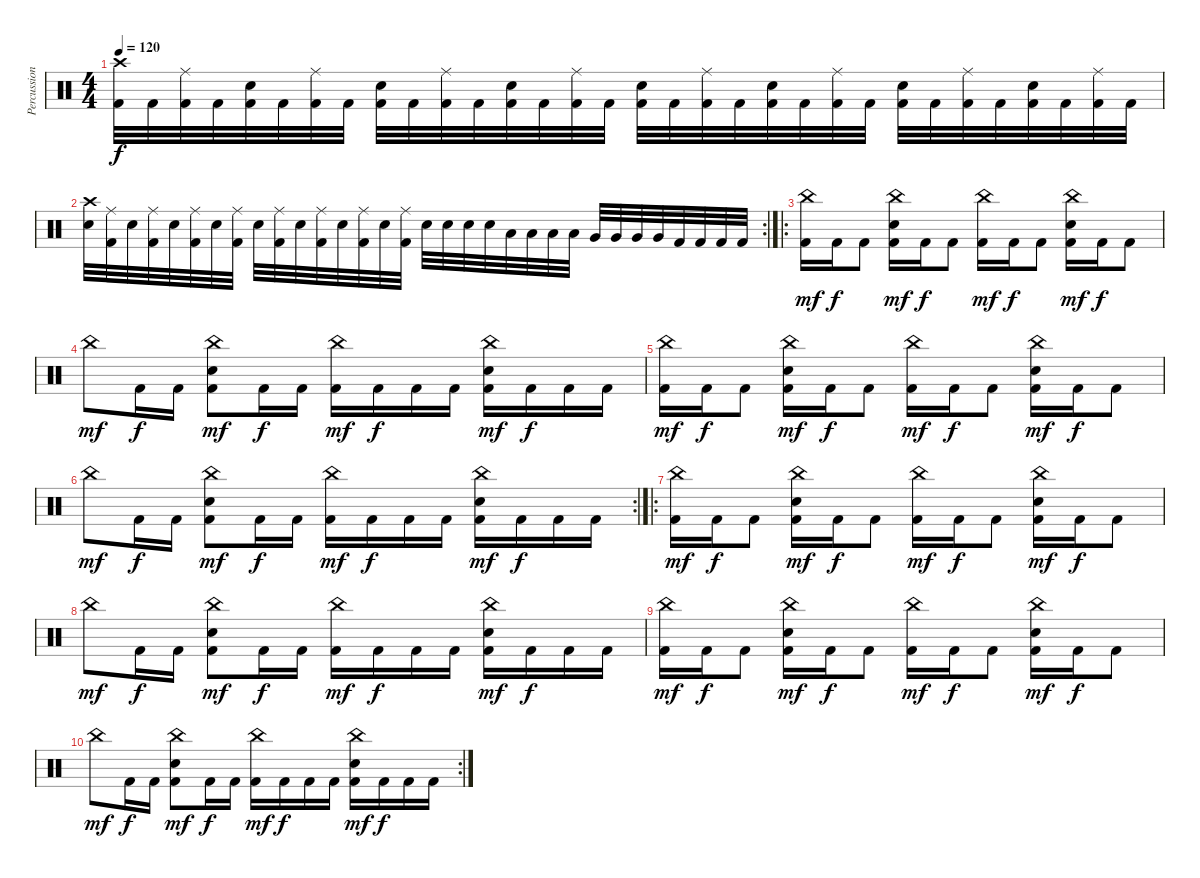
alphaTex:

\track ("Percussion" "Percussion") {instrument percussion}
\staff {score}
\articulation defaults
\ts (4 4)
\tempo 120
\clef neutral
\ks c
("Crash high (hit)" "Kick (hit) 2").32{dy f} "Kick (hit) 2".32 ("Ride (middle)" "Kick (hit) 2").32 "Kick (hit) 2".32 ("Electric Snare (hit)" "Kick (hit) 2").32 "Kick (hit) 2".32 ("Ride (middle)" "Kick (hit) 2").32 "Kick (hit) 2".32 ("Electric Snare (hit)" "Kick (hit) 2").32 "Kick (hit) 2".32 ("Ride (middle)" "Kick (hit) 2").32 "Kick (hit) 2".32 ("Electric Snare (hit)" "Kick (hit) 2").32 "Kick (hit) 2".32 ("Ride (middle)" "Kick (hit) 2").32 "Kick (hit) 2".32 ("Electric Snare (hit)" "Kick (hit) 2").32 "Kick (hit) 2".32 ("Ride (middle)" "Kick (hit) 2").32 "Kick (hit) 2".32 ("Electric Snare (hit)" "Kick (hit) 2").32 "Kick (hit) 2".32 ("Ride (middle)" "Kick (hit) 2").32 "Kick (hit) 2".32 ("Electric Snare (hit)" "Kick (hit) 2").32 "Kick (hit) 2".32 ("Ride (middle)" "Kick (hit) 2").32 "Kick (hit) 2".32 ("Electric Snare (hit)" "Kick (hit) 2").32 "Kick (hit) 2".32 ("Ride (middle)" "Kick (hit) 2").32 "Kick (hit) 2".32 |
\rc 2
("Crash high (hit)" "Electric Snare (hit)").32 ("Ride (middle)" "Kick (hit) 2").32 "Electric Snare (hit)".32 ("Ride (middle)" "Kick (hit) 2").32 "Electric Snare (hit)".32 ("Ride (middle)" "Kick (hit) 2").32 "Electric Snare (hit)".32 ("Ride (middle)" "Kick (hit) 2").32 "Electric Snare (hit)".32 ("Ride (middle)" "Kick (hit) 2").32 "Electric Snare (hit)".32 ("Ride (middle)" "Kick (hit) 2").32 "Electric Snare (hit)".32 ("Ride (middle)" "Kick (hit) 2").32 "Electric Snare (hit)".32 ("Ride (middle)" "Kick (hit) 2").32 "Electric Snare (hit)".32 "Electric Snare (hit)".32 "Electric Snare (hit)".32 "Electric Snare (hit)".32 "Low Tom (hit)".32 "Low Tom (hit)".32 "Low Tom (hit)".32 "Low Tom (hit)".32 "Very Low Tom (hit)".32 "Very Low Tom (hit)".32 "Very Low Tom (hit)".32 "Very Low Tom (hit)".32 "Kick (hit) 2".32 "Kick (hit) 2".32 "Kick (hit) 2".32 "Kick (hit) 2".32 |
\ro
("China (hit)" "Kick (hit) 2").16{dy mf} "Kick (hit) 2".16{dy f} "Kick (hit) 2".8 ("China (hit)" "Electric Snare (hit)" "Kick (hit) 2").16{dy mf} "Kick (hit) 2".16{dy f} "Kick (hit) 2".8 ("China (hit)" "Kick (hit) 2").16{dy mf} "Kick (hit) 2".16{dy f} "Kick (hit) 2".8 ("China (hit)" "Electric Snare (hit)" "Kick (hit) 2").16{dy mf} "Kick (hit) 2".16{dy f} "Kick (hit) 2".8 |
"China (hit)".8{dy mf} "Kick (hit) 2".16{dy f} "Kick (hit) 2".16 ("China (hit)" "Electric Snare (hit)" "Kick (hit) 2").8{dy mf} "Kick (hit) 2".16{dy f} "Kick (hit) 2".16 ("China (hit)" "Kick (hit) 2").16{dy mf} "Kick (hit) 2".16{dy f} "Kick (hit) 2".16 "Kick (hit) 2".16 ("China (hit)" "Electric Snare (hit)" "Kick (hit) 2").16{dy mf} "Kick (hit) 2".16{dy f} "Kick (hit) 2".16 "Kick (hit) 2".16 |
("China (hit)" "Kick (hit) 2").16{dy mf} "Kick (hit) 2".16{dy f} "Kick (hit) 2".8 ("China (hit)" "Electric Snare (hit)" "Kick (hit) 2").16{dy mf} "Kick (hit) 2".16{dy f} "Kick (hit) 2".8 ("China (hit)" "Kick (hit) 2").16{dy mf} "Kick (hit) 2".16{dy f} "Kick (hit) 2".8 ("China (hit)" "Electric Snare (hit)" "Kick (hit) 2").16{dy mf} "Kick (hit) 2".16{dy f} "Kick (hit) 2".8 |
\rc 2 "China (hit)".8{dy mf} "Kick (hit) 2".16{dy f} "Kick (hit) 2".16
("China (hit)" "Electric Snare (hit)" "Kick (hit) 2").8{dy mf} "Kick (hit) 2".16{dy f} "Kick (hit) 2".16 ("China (hit)" "Kick (hit) 2").16{dy mf} "Kick (hit) 2".16{dy f} "Kick (hit) 2".16 "Kick (hit) 2".16 ("China (hit)" "Electric Snare (hit)" "Kick (hit) 2").16{dy mf} "Kick (hit) 2".16{dy f} "Kick (hit) 2".16 "Kick (hit) 2".16 |
\ro
("China (hit)" "Kick (hit) 2").16{dy mf} "Kick (hit) 2".16{dy f} "Kick (hit) 2".8 ("China (hit)" "Electric Snare (hit)" "Kick (hit) 2").16{dy mf} "Kick (hit) 2".16{dy f} "Kick (hit) 2".8 ("China (hit)" "Kick (hit) 2").16{dy mf} "Kick (hit) 2".16{dy f} "Kick (hit) 2".8 ("China (hit)" "Electric Snare (hit)" "Kick (hit) 2").16{dy mf} "Kick (hit) 2".16{dy f} "Kick (hit) 2".8 |
"China (hit)".8{dy mf} "Kick (hit) 2".16{dy f} "Kick (hit) 2".16 ("China (hit)" "Electric Snare (hit)" "Kick (hit) 2").8{dy mf} "Kick (hit) 2".16{dy f} "Kick (hit) 2".16 ("China (hit)" "Kick (hit) 2").16{dy mf} "Kick (hit) 2".16{dy f} "Kick (hit) 2".16 "Kick (hit) 2".16 ("China (hit)" "Electric Snare (hit)" "Kick (hit) 2").16{dy mf} "Kick (hit) 2".16{dy f} "Kick (hit) 2".16 "Kick (hit) 2".16 |
("China (hit)" "Kick (hit) 2").16{dy mf} "Kick (hit) 2".16{dy f} "Kick (hit) 2".8 ("China (hit)" "Electric Snare (hit)" "Kick (hit) 2").16{dy mf} "Kick (hit) 2".16{dy f} "Kick (hit) 2".8 ("China (hit)" "Kick (hit) 2").16{dy mf} "Kick (hit) 2".16{dy f} "Kick (hit) 2".8 ("China (hit)" "Electric Snare (hit)" "Kick (hit) 2").16{dy mf} "Kick (hit) 2".16{dy f} "Kick (hit) 2".8 |
\rc 2 "China (hit)".8{dy mf} "Kick (hit) 2".16{dy f} "Kick (hit) 2".16
("China (hit)" "Electric Snare (hit)" "Kick (hit) 2").8{dy mf} "Kick (hit) 2".16{dy f} "Kick (hit) 2".16 ("China (hit)" "Kick (hit) 2").16{dy mf} "Kick (hit) 2".16{dy f} "Kick (hit) 2".16 "Kick (hit) 2".16 ("China (hit)" "Electric Snare (hit)" "Kick (hit) 2").16{dy mf} "Kick (hit) 2".16{dy f} "Kick (hit) 2".16 "Kick (hit) 2".16
